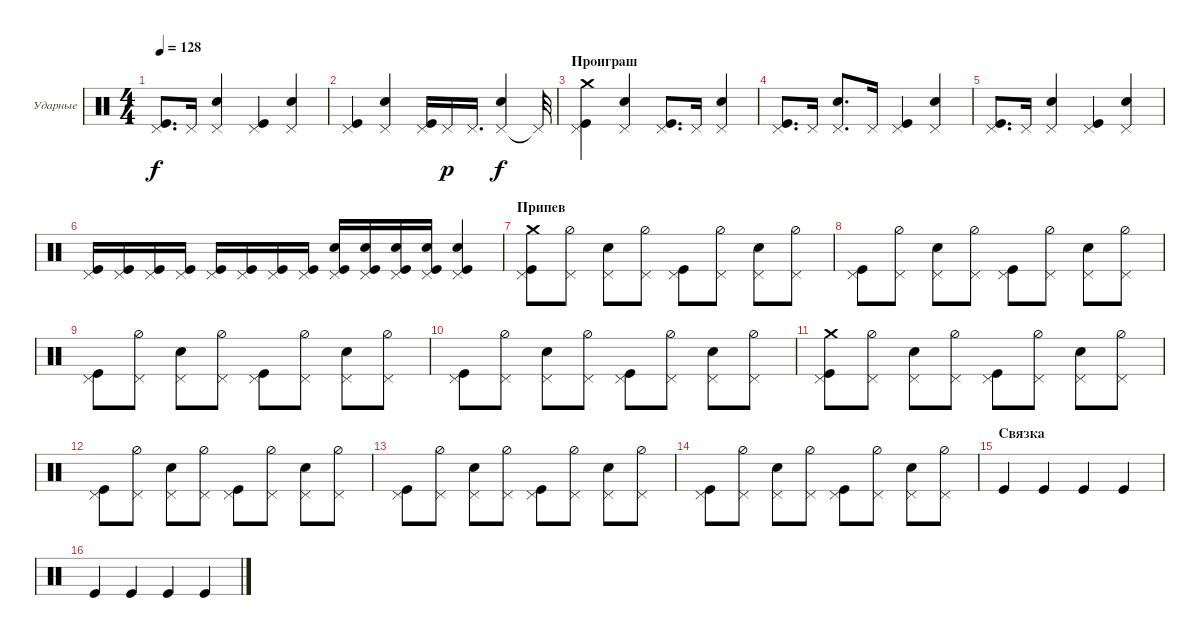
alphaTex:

\defaultSystemsLayout 4
\bracketExtendMode groupsimilarinstruments
\firstSystemTrackNameOrientation horizontal
\otherSystemsTrackNameOrientation horizontal
\track ("Е. Кулаков" "Ударные") {instrument percussion}
\staff {score}
\articulation defaults
\ts (4 4)
\tempo 128
\clef neutral
\ks c
("Pedal Hi-Hat (hit)" "Kick (hit)").8{d dy f} "Pedal Hi-Hat (hit)".16 ("Pedal Hi-Hat (hit)" "Snare (hit) 2").4 ("Pedal Hi-Hat (hit)" "Kick (hit)").4 ("Pedal Hi-Hat (hit)" "Snare (hit) 2").4 |
("Pedal Hi-Hat (hit)" "Kick (hit)").4 ("Pedal Hi-Hat (hit)" "Snare (hit) 2").4 ("Pedal Hi-Hat (hit)" "Kick (hit)").16 "Pedal Hi-Hat (hit)".16{dy p} "Pedal Hi-Hat (hit)".16{d} ("Pedal Hi-Hat (hit)" "Snare (hit) 2").4{dy f} "Pedal Hi-Hat (hit)"{t}.32 |
\section ("" "Проиграш")
("Kick (hit)" "Crash medium (hit)" "Pedal Hi-Hat (hit)").4 ("Pedal Hi-Hat (hit)" "Snare (hit) 2").4 ("Pedal Hi-Hat (hit)" "Kick (hit)").8{d} "Pedal Hi-Hat (hit)".16 ("Pedal Hi-Hat (hit)" "Snare (hit) 2").4 |
("Pedal Hi-Hat (hit)" "Kick (hit)").8{d} "Pedal Hi-Hat (hit)".16 ("Pedal Hi-Hat (hit)" "Snare (hit) 2").8{d} "Pedal Hi-Hat (hit)".16 ("Pedal Hi-Hat (hit)" "Kick (hit)").4 ("Pedal Hi-Hat (hit)" "Snare (hit) 2").4 |
("Pedal Hi-Hat (hit)" "Kick (hit)").8{d} "Pedal Hi-Hat (hit)".16 ("Pedal Hi-Hat (hit)" "Snare (hit) 2").4 ("Pedal Hi-Hat (hit)" "Kick (hit)").4 ("Pedal Hi-Hat (hit)" "Snare (hit) 2").4 |
("Pedal Hi-Hat (hit)" "Kick (hit)").16 ("Pedal Hi-Hat (hit)" "Kick (hit)").16 ("Pedal Hi-Hat (hit)" "Kick (hit)").16 ("Pedal Hi-Hat (hit)" "Kick (hit)").16 ("Pedal Hi-Hat (hit)" "Kick (hit)").16 ("Pedal Hi-Hat (hit)" "Kick (hit)").16 ("Pedal Hi-Hat (hit)" "Kick (hit)").16 ("Pedal Hi-Hat (hit)" "Kick (hit)").16 ("Snare (hit) 2" "Kick (hit)" "Pedal Hi-Hat (hit)").16 ("Snare (hit) 2" "Kick (hit)" "Pedal Hi-Hat (hit)").16 ("Snare (hit) 2" "Kick (hit)" "Pedal Hi-Hat (hit)").16 ("Snare (hit) 2" "Kick (hit)" "Pedal Hi-Hat (hit)").16 ("Snare (hit) 2" "Kick (hit)" "Pedal Hi-Hat (hit)").4 |
\section ("" "Припев")
("Kick (hit)" "Pedal Hi-Hat (hit)" "Crash medium (hit)").8 ("Hi-Hat (half)" "Pedal Hi-Hat (hit)").8 ("Pedal Hi-Hat (hit)" "Snare (hit) 2").8 ("Hi-Hat (half)" "Pedal Hi-Hat (hit)").8 ("Kick (hit)" "Pedal Hi-Hat (hit)").8 ("Hi-Hat (half)" "Pedal Hi-Hat (hit)").8 ("Pedal Hi-Hat (hit)" "Snare (hit) 2").8 ("Hi-Hat (half)" "Pedal Hi-Hat (hit)").8 |
("Kick (hit)" "Pedal Hi-Hat (hit)").8 ("Hi-Hat (half)" "Pedal Hi-Hat (hit)").8 ("Pedal Hi-Hat (hit)" "Snare (hit) 2").8 ("Hi-Hat (half)" "Pedal Hi-Hat (hit)").8 ("Kick (hit)" "Pedal Hi-Hat (hit)").8 ("Hi-Hat (half)" "Pedal Hi-Hat (hit)").8 ("Pedal Hi-Hat (hit)" "Snare (hit) 2").8 ("Hi-Hat (half)" "Pedal Hi-Hat (hit)").8 |
("Kick (hit)" "Pedal Hi-Hat (hit)").8 ("Hi-Hat (half)" "Pedal Hi-Hat (hit)").8 ("Pedal Hi-Hat (hit)" "Snare (hit) 2").8 ("Hi-Hat (half)" "Pedal Hi-Hat (hit)").8 ("Kick (hit)" "Pedal Hi-Hat (hit)").8 ("Hi-Hat (half)" "Pedal Hi-Hat (hit)").8 ("Pedal Hi-Hat (hit)" "Snare (hit) 2").8 ("Hi-Hat (half)" "Pedal Hi-Hat (hit)").8 |
("Kick (hit)" "Pedal Hi-Hat (hit)").8 ("Hi-Hat (half)" "Pedal Hi-Hat (hit)").8 ("Pedal Hi-Hat (hit)" "Snare (hit) 2").8 ("Hi-Hat (half)" "Pedal Hi-Hat (hit)").8 ("Kick (hit)" "Pedal Hi-Hat (hit)").8 ("Hi-Hat (half)" "Pedal Hi-Hat (hit)").8 ("Pedal Hi-Hat (hit)" "Snare (hit) 2").8 ("Hi-Hat (half)" "Pedal Hi-Hat (hit)").8 |
("Kick (hit)" "Pedal Hi-Hat (hit)" "Crash medium (hit)").8 ("Hi-Hat (half)" "Pedal Hi-Hat (hit)").8 ("Pedal Hi-Hat (hit)" "Snare (hit) 2").8 ("Hi-Hat (half)" "Pedal Hi-Hat (hit)").8 ("Kick (hit)" "Pedal Hi-Hat (hit)").8 ("Hi-Hat (half)" "Pedal Hi-Hat (hit)").8 ("Pedal Hi-Hat (hit)" "Snare (hit) 2").8 ("Hi-Hat (half)" "Pedal Hi-Hat (hit)").8 |
("Kick (hit)" "Pedal Hi-Hat (hit)").8 ("Hi-Hat (half)" "Pedal Hi-Hat (hit)").8 ("Pedal Hi-Hat (hit)" "Snare (hit) 2").8 ("Hi-Hat (half)" "Pedal Hi-Hat (hit)").8 ("Kick (hit)" "Pedal Hi-Hat (hit)").8 ("Hi-Hat (half)" "Pedal Hi-Hat (hit)").8 ("Pedal Hi-Hat (hit)" "Snare (hit) 2").8 ("Hi-Hat (half)" "Pedal Hi-Hat (hit)").8 |
("Kick (hit)" "Pedal Hi-Hat (hit)").8 ("Hi-Hat (half)" "Pedal Hi-Hat (hit)").8 ("Pedal Hi-Hat (hit)" "Snare (hit) 2").8 ("Hi-Hat (half)" "Pedal Hi-Hat (hit)").8 ("Kick (hit)" "Pedal Hi-Hat (hit)").8 ("Hi-Hat (half)" "Pedal Hi-Hat (hit)").8 ("Pedal Hi-Hat (hit)" "Snare (hit) 2").8 ("Hi-Hat (half)" "Pedal Hi-Hat (hit)").8 |
("Kick (hit)" "Pedal Hi-Hat (hit)").8 ("Hi-Hat (half)" "Pedal Hi-Hat (hit)").8 ("Pedal Hi-Hat (hit)" "Snare (hit) 2").8 ("Hi-Hat (half)" "Pedal Hi-Hat (hit)").8 ("Kick (hit)" "Pedal Hi-Hat (hit)").8 ("Hi-Hat (half)" "Pedal Hi-Hat (hit)").8 ("Pedal Hi-Hat (hit)" "Snare (hit) 2").8 ("Hi-Hat (half)" "Pedal Hi-Hat (hit)").8 |
\section ("" "Связка")
"Kick (hit)".4 "Kick (hit)".4 "Kick (hit)".4 "Kick (hit)".4 |
"Kick (hit)".4 "Kick (hit)".4 "Kick (hit)".4 "Kick (hit)".4
